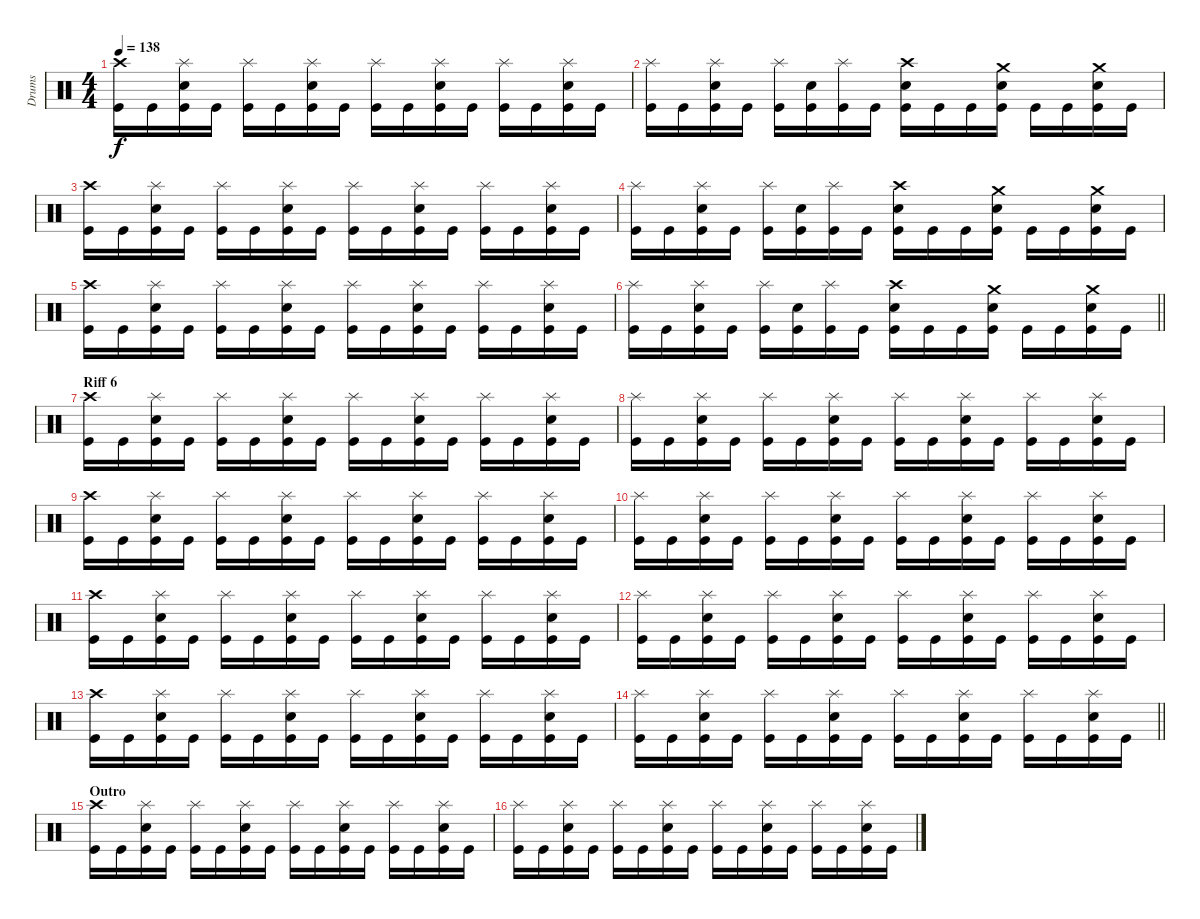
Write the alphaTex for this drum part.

\track ("Drums" "Drums") {instrument percussion}
\staff {score}
\articulation defaults
\ts (4 4)
\tempo 138
\clef neutral
\ks c
("Crash high (hit)" "Kick (hit)").16{dy f} "Kick (hit)".16 ("Splash (hit)" "Electric Snare (hit)" "Kick (hit)").16 "Kick (hit)".16 ("Splash (hit)" "Kick (hit)").16 "Kick (hit)".16 ("Splash (hit)" "Electric Snare (hit)" "Kick (hit)").16 "Kick (hit)".16 ("Splash (hit)" "Kick (hit)").16 "Kick (hit)".16 ("Splash (hit)" "Electric Snare (hit)" "Kick (hit)").16 "Kick (hit)".16 ("Splash (hit)" "Kick (hit)").16 "Kick (hit)".16 ("Splash (hit)" "Electric Snare (hit)" "Kick (hit)").16 "Kick (hit)".16 |
("Splash (hit)" "Kick (hit)").16 "Kick (hit)".16 ("Splash (hit)" "Electric Snare (hit)" "Kick (hit)").16 "Kick (hit)".16 ("Splash (hit)" "Kick (hit)").16 ("Electric Snare (hit)" "Kick (hit)").16 ("Splash (hit)" "Kick (hit)").16 "Kick (hit)".16 ("Crash high (hit)" "Electric Snare (hit)" "Kick (hit)").16 "Kick (hit)".16 "Kick (hit)".16 ("Crash medium (hit)" "Electric Snare (hit)" "Kick (hit)").16 "Kick (hit)".16 "Kick (hit)".16 ("Crash medium (hit)" "Electric Snare (hit)" "Kick (hit)").16 "Kick (hit)".16 |
("Crash high (hit)" "Kick (hit)").16 "Kick (hit)".16 ("Splash (hit)" "Electric Snare (hit)" "Kick (hit)").16 "Kick (hit)".16 ("Splash (hit)" "Kick (hit)").16 "Kick (hit)".16 ("Splash (hit)" "Electric Snare (hit)" "Kick (hit)").16 "Kick (hit)".16 ("Splash (hit)" "Kick (hit)").16 "Kick (hit)".16 ("Splash (hit)" "Electric Snare (hit)" "Kick (hit)").16 "Kick (hit)".16 ("Splash (hit)" "Kick (hit)").16 "Kick (hit)".16 ("Splash (hit)" "Electric Snare (hit)" "Kick (hit)").16 "Kick (hit)".16 |
("Splash (hit)" "Kick (hit)").16 "Kick (hit)".16 ("Splash (hit)" "Electric Snare (hit)" "Kick (hit)").16 "Kick (hit)".16 ("Splash (hit)" "Kick (hit)").16 ("Electric Snare (hit)" "Kick (hit)").16 ("Splash (hit)" "Kick (hit)").16 "Kick (hit)".16 ("Crash high (hit)" "Electric Snare (hit)" "Kick (hit)").16 "Kick (hit)".16 "Kick (hit)".16 ("Crash medium (hit)" "Electric Snare (hit)" "Kick (hit)").16 "Kick (hit)".16 "Kick (hit)".16 ("Crash medium (hit)" "Electric Snare (hit)" "Kick (hit)").16 "Kick (hit)".16 |
("Crash high (hit)" "Kick (hit)").16 "Kick (hit)".16 ("Splash (hit)" "Electric Snare (hit)" "Kick (hit)").16 "Kick (hit)".16 ("Splash (hit)" "Kick (hit)").16 "Kick (hit)".16 ("Splash (hit)" "Electric Snare (hit)" "Kick (hit)").16 "Kick (hit)".16 ("Splash (hit)" "Kick (hit)").16 "Kick (hit)".16 ("Splash (hit)" "Electric Snare (hit)" "Kick (hit)").16 "Kick (hit)".16 ("Splash (hit)" "Kick (hit)").16 "Kick (hit)".16 ("Splash (hit)" "Electric Snare (hit)" "Kick (hit)").16 "Kick (hit)".16 |
\barLineRight lightlight
("Splash (hit)" "Kick (hit)").16 "Kick (hit)".16 ("Splash (hit)" "Electric Snare (hit)" "Kick (hit)").16 "Kick (hit)".16 ("Splash (hit)" "Kick (hit)").16 ("Electric Snare (hit)" "Kick (hit)").16 ("Splash (hit)" "Kick (hit)").16 "Kick (hit)".16 ("Crash high (hit)" "Electric Snare (hit)" "Kick (hit)").16 "Kick (hit)".16 "Kick (hit)".16 ("Crash medium (hit)" "Electric Snare (hit)" "Kick (hit)").16 "Kick (hit)".16 "Kick (hit)".16 ("Crash medium (hit)" "Electric Snare (hit)" "Kick (hit)").16 "Kick (hit)".16 |
\section ("" "Riff 6")
("Crash high (hit)" "Kick (hit)").16 "Kick (hit)".16 ("Splash (hit)" "Electric Snare (hit)" "Kick (hit)").16 "Kick (hit)".16 ("Splash (hit)" "Kick (hit)").16 "Kick (hit)".16 ("Splash (hit)" "Electric Snare (hit)" "Kick (hit)").16 "Kick (hit)".16 ("Splash (hit)" "Kick (hit)").16 "Kick (hit)".16 ("Splash (hit)" "Electric Snare (hit)" "Kick (hit)").16 "Kick (hit)".16 ("Splash (hit)" "Kick (hit)").16 "Kick (hit)".16 ("Splash (hit)" "Electric Snare (hit)" "Kick (hit)").16 "Kick (hit)".16 |
("Splash (hit)" "Kick (hit)").16 "Kick (hit)".16 ("Splash (hit)" "Electric Snare (hit)" "Kick (hit)").16 "Kick (hit)".16 ("Splash (hit)" "Kick (hit)").16 "Kick (hit)".16 ("Splash (hit)" "Electric Snare (hit)" "Kick (hit)").16 "Kick (hit)".16 ("Splash (hit)" "Kick (hit)").16 "Kick (hit)".16 ("Splash (hit)" "Electric Snare (hit)" "Kick (hit)").16 "Kick (hit)".16 ("Splash (hit)" "Kick (hit)").16 "Kick (hit)".16 ("Splash (hit)" "Electric Snare (hit)" "Kick (hit)").16 "Kick (hit)".16 |
("Crash high (hit)" "Kick (hit)").16 "Kick (hit)".16 ("Splash (hit)" "Electric Snare (hit)" "Kick (hit)").16 "Kick (hit)".16 ("Splash (hit)" "Kick (hit)").16 "Kick (hit)".16 ("Splash (hit)" "Electric Snare (hit)" "Kick (hit)").16 "Kick (hit)".16 ("Splash (hit)" "Kick (hit)").16 "Kick (hit)".16 ("Splash (hit)" "Electric Snare (hit)" "Kick (hit)").16 "Kick (hit)".16 ("Splash (hit)" "Kick (hit)").16 "Kick (hit)".16 ("Splash (hit)" "Electric Snare (hit)" "Kick (hit)").16 "Kick (hit)".16 |
("Splash (hit)" "Kick (hit)").16 "Kick (hit)".16 ("Splash (hit)" "Electric Snare (hit)" "Kick (hit)").16 "Kick (hit)".16 ("Splash (hit)" "Kick (hit)").16 "Kick (hit)".16 ("Splash (hit)" "Electric Snare (hit)" "Kick (hit)").16 "Kick (hit)".16 ("Splash (hit)" "Kick (hit)").16 "Kick (hit)".16 ("Splash (hit)" "Electric Snare (hit)" "Kick (hit)").16 "Kick (hit)".16 ("Splash (hit)" "Kick (hit)").16 "Kick (hit)".16 ("Splash (hit)" "Electric Snare (hit)" "Kick (hit)").16 "Kick (hit)".16 |
("Crash high (hit)" "Kick (hit)").16 "Kick (hit)".16 ("Splash (hit)" "Electric Snare (hit)" "Kick (hit)").16 "Kick (hit)".16 ("Splash (hit)" "Kick (hit)").16 "Kick (hit)".16 ("Splash (hit)" "Electric Snare (hit)" "Kick (hit)").16 "Kick (hit)".16 ("Splash (hit)" "Kick (hit)").16 "Kick (hit)".16 ("Splash (hit)" "Electric Snare (hit)" "Kick (hit)").16 "Kick (hit)".16 ("Splash (hit)" "Kick (hit)").16 "Kick (hit)".16 ("Splash (hit)" "Electric Snare (hit)" "Kick (hit)").16 "Kick (hit)".16 |
("Splash (hit)" "Kick (hit)").16 "Kick (hit)".16 ("Splash (hit)" "Electric Snare (hit)" "Kick (hit)").16 "Kick (hit)".16 ("Splash (hit)" "Kick (hit)").16 "Kick (hit)".16 ("Splash (hit)" "Electric Snare (hit)" "Kick (hit)").16 "Kick (hit)".16 ("Splash (hit)" "Kick (hit)").16 "Kick (hit)".16 ("Splash (hit)" "Electric Snare (hit)" "Kick (hit)").16 "Kick (hit)".16 ("Splash (hit)" "Kick (hit)").16 "Kick (hit)".16 ("Splash (hit)" "Electric Snare (hit)" "Kick (hit)").16 "Kick (hit)".16 |
("Crash high (hit)" "Kick (hit)").16 "Kick (hit)".16 ("Splash (hit)" "Electric Snare (hit)" "Kick (hit)").16 "Kick (hit)".16 ("Splash (hit)" "Kick (hit)").16 "Kick (hit)".16 ("Splash (hit)" "Electric Snare (hit)" "Kick (hit)").16 "Kick (hit)".16 ("Splash (hit)" "Kick (hit)").16 "Kick (hit)".16 ("Splash (hit)" "Electric Snare (hit)" "Kick (hit)").16 "Kick (hit)".16 ("Splash (hit)" "Kick (hit)").16 "Kick (hit)".16 ("Splash (hit)" "Electric Snare (hit)" "Kick (hit)").16 "Kick (hit)".16 |
\barLineRight lightlight
("Splash (hit)" "Kick (hit)").16 "Kick (hit)".16 ("Splash (hit)" "Electric Snare (hit)" "Kick (hit)").16 "Kick (hit)".16 ("Splash (hit)" "Kick (hit)").16 "Kick (hit)".16 ("Splash (hit)" "Electric Snare (hit)" "Kick (hit)").16 "Kick (hit)".16 ("Splash (hit)" "Kick (hit)").16 "Kick (hit)".16 ("Splash (hit)" "Electric Snare (hit)" "Kick (hit)").16 "Kick (hit)".16 ("Splash (hit)" "Kick (hit)").16 "Kick (hit)".16 ("Splash (hit)" "Electric Snare (hit)" "Kick (hit)").16 "Kick (hit)".16 |
\section ("" "Outro")
("Crash high (hit)" "Kick (hit)").16 "Kick (hit)".16 ("Splash (hit)" "Electric Snare (hit)" "Kick (hit)").16 "Kick (hit)".16 ("Splash (hit)" "Kick (hit)").16 "Kick (hit)".16 ("Splash (hit)" "Electric Snare (hit)" "Kick (hit)").16 "Kick (hit)".16 ("Splash (hit)" "Kick (hit)").16 "Kick (hit)".16 ("Splash (hit)" "Electric Snare (hit)" "Kick (hit)").16 "Kick (hit)".16 ("Splash (hit)" "Kick (hit)").16 "Kick (hit)".16 ("Splash (hit)" "Electric Snare (hit)" "Kick (hit)").16 "Kick (hit)".16 |
("Splash (hit)" "Kick (hit)").16 "Kick (hit)".16 ("Splash (hit)" "Electric Snare (hit)" "Kick (hit)").16 "Kick (hit)".16 ("Splash (hit)" "Kick (hit)").16 "Kick (hit)".16 ("Splash (hit)" "Electric Snare (hit)" "Kick (hit)").16 "Kick (hit)".16 ("Splash (hit)" "Kick (hit)").16 "Kick (hit)".16 ("Splash (hit)" "Electric Snare (hit)" "Kick (hit)").16 "Kick (hit)".16 ("Splash (hit)" "Kick (hit)").16 "Kick (hit)".16 ("Splash (hit)" "Electric Snare (hit)" "Kick (hit)").16 "Kick (hit)".16
